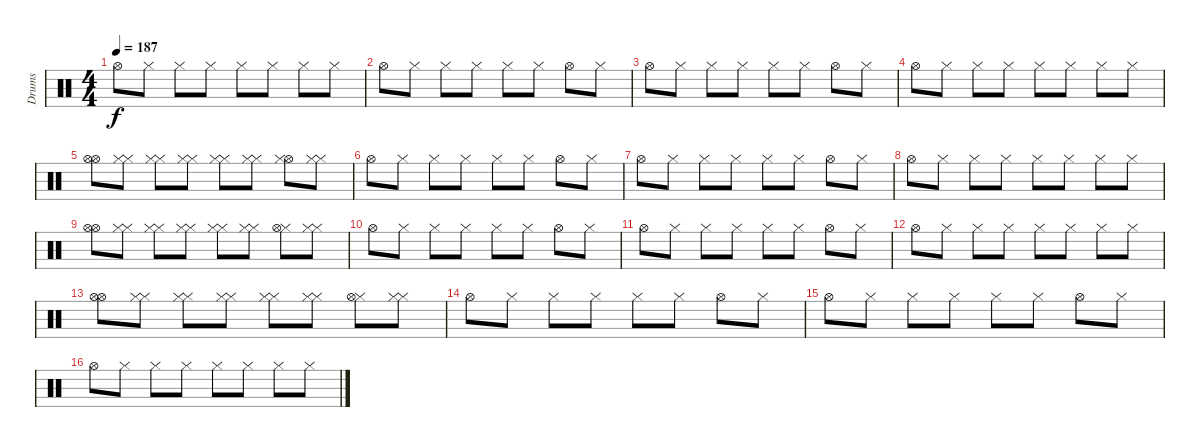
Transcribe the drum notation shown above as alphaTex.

\track ("Drums" "Drums") {instrument percussion}
\staff {score}
\articulation defaults
\ts (4 4)
\tempo 187
\clef neutral
\ks c "Hi-Hat (open)".8{dy f} "Hi-Hat (closed)".8 "Hi-Hat (closed)".8 "Hi-Hat (closed)".8 "Hi-Hat (closed)".8 "Hi-Hat (closed)".8 "Hi-Hat (closed)".8 "Hi-Hat (closed)".8
|
"Hi-Hat (open)".8 "Hi-Hat (closed)".8 "Hi-Hat (closed)".8 "Hi-Hat (closed)".8 "Hi-Hat (closed)".8 "Hi-Hat (closed)".8 "Hi-Hat (open)".8 "Hi-Hat (closed)".8 |
"Hi-Hat (open)".8 "Hi-Hat (closed)".8 "Hi-Hat (closed)".8 "Hi-Hat (closed)".8 "Hi-Hat (closed)".8 "Hi-Hat (closed)".8 "Hi-Hat (open)".8 "Hi-Hat (closed)".8 |
"Hi-Hat (open)".8 "Hi-Hat (closed)".8 "Hi-Hat (closed)".8 "Hi-Hat (closed)".8 "Hi-Hat (closed)".8 "Hi-Hat (closed)".8 "Hi-Hat (closed)".8 "Hi-Hat (closed)".8 |
("Hi-Hat (open)" "Hi-Hat (open)").8 ("Hi-Hat (closed)" "Hi-Hat (closed)").8 ("Hi-Hat (closed)" "Hi-Hat (closed)").8 ("Hi-Hat (closed)" "Hi-Hat (closed)").8 ("Hi-Hat (closed)" "Hi-Hat (closed)").8 ("Hi-Hat (closed)" "Hi-Hat (closed)").8 ("Hi-Hat (open)" "Hi-Hat (closed)").8 ("Hi-Hat (closed)" "Hi-Hat (closed)").8 |
"Hi-Hat (open)".8 "Hi-Hat (closed)".8 "Hi-Hat (closed)".8 "Hi-Hat (closed)".8 "Hi-Hat (closed)".8 "Hi-Hat (closed)".8 "Hi-Hat (open)".8 "Hi-Hat (closed)".8 |
"Hi-Hat (open)".8 "Hi-Hat (closed)".8 "Hi-Hat (closed)".8 "Hi-Hat (closed)".8 "Hi-Hat (closed)".8 "Hi-Hat (closed)".8 "Hi-Hat (open)".8 "Hi-Hat (closed)".8 |
"Hi-Hat (open)".8 "Hi-Hat (closed)".8 "Hi-Hat (closed)".8 "Hi-Hat (closed)".8 "Hi-Hat (closed)".8 "Hi-Hat (closed)".8 "Hi-Hat (closed)".8 "Hi-Hat (closed)".8 |
("Hi-Hat (open)" "Hi-Hat (open)").8 ("Hi-Hat (closed)" "Hi-Hat (closed)").8 ("Hi-Hat (closed)" "Hi-Hat (closed)").8 ("Hi-Hat (closed)" "Hi-Hat (closed)").8 ("Hi-Hat (closed)" "Hi-Hat (closed)").8 ("Hi-Hat (closed)" "Hi-Hat (closed)").8 ("Hi-Hat (closed)" "Hi-Hat (open)").8 ("Hi-Hat (closed)" "Hi-Hat (closed)").8 |
"Hi-Hat (open)".8 "Hi-Hat (closed)".8 "Hi-Hat (closed)".8 "Hi-Hat (closed)".8 "Hi-Hat (closed)".8 "Hi-Hat (closed)".8 "Hi-Hat (open)".8 "Hi-Hat (closed)".8 |
"Hi-Hat (open)".8 "Hi-Hat (closed)".8 "Hi-Hat (closed)".8 "Hi-Hat (closed)".8 "Hi-Hat (closed)".8 "Hi-Hat (closed)".8 "Hi-Hat (open)".8 "Hi-Hat (closed)".8 |
"Hi-Hat (open)".8 "Hi-Hat (closed)".8 "Hi-Hat (closed)".8 "Hi-Hat (closed)".8 "Hi-Hat (closed)".8 "Hi-Hat (closed)".8 "Hi-Hat (closed)".8 "Hi-Hat (closed)".8 |
("Hi-Hat (open)" "Hi-Hat (open)").8 ("Hi-Hat (closed)" "Hi-Hat (closed)").8 ("Hi-Hat (closed)" "Hi-Hat (closed)").8 ("Hi-Hat (closed)" "Hi-Hat (closed)").8 ("Hi-Hat (closed)" "Hi-Hat (closed)").8 ("Hi-Hat (closed)" "Hi-Hat (closed)").8 ("Hi-Hat (closed)" "Hi-Hat (open)").8 ("Hi-Hat (closed)" "Hi-Hat (closed)").8 |
"Hi-Hat (open)".8 "Hi-Hat (closed)".8 "Hi-Hat (closed)".8 "Hi-Hat (closed)".8 "Hi-Hat (closed)".8 "Hi-Hat (closed)".8 "Hi-Hat (open)".8 "Hi-Hat (closed)".8 |
"Hi-Hat (open)".8 "Hi-Hat (closed)".8 "Hi-Hat (closed)".8 "Hi-Hat (closed)".8 "Hi-Hat (closed)".8 "Hi-Hat (closed)".8 "Hi-Hat (open)".8 "Hi-Hat (closed)".8 |
"Hi-Hat (open)".8 "Hi-Hat (closed)".8 "Hi-Hat (closed)".8 "Hi-Hat (closed)".8 "Hi-Hat (closed)".8 "Hi-Hat (closed)".8 "Hi-Hat (closed)".8 "Hi-Hat (closed)".8
